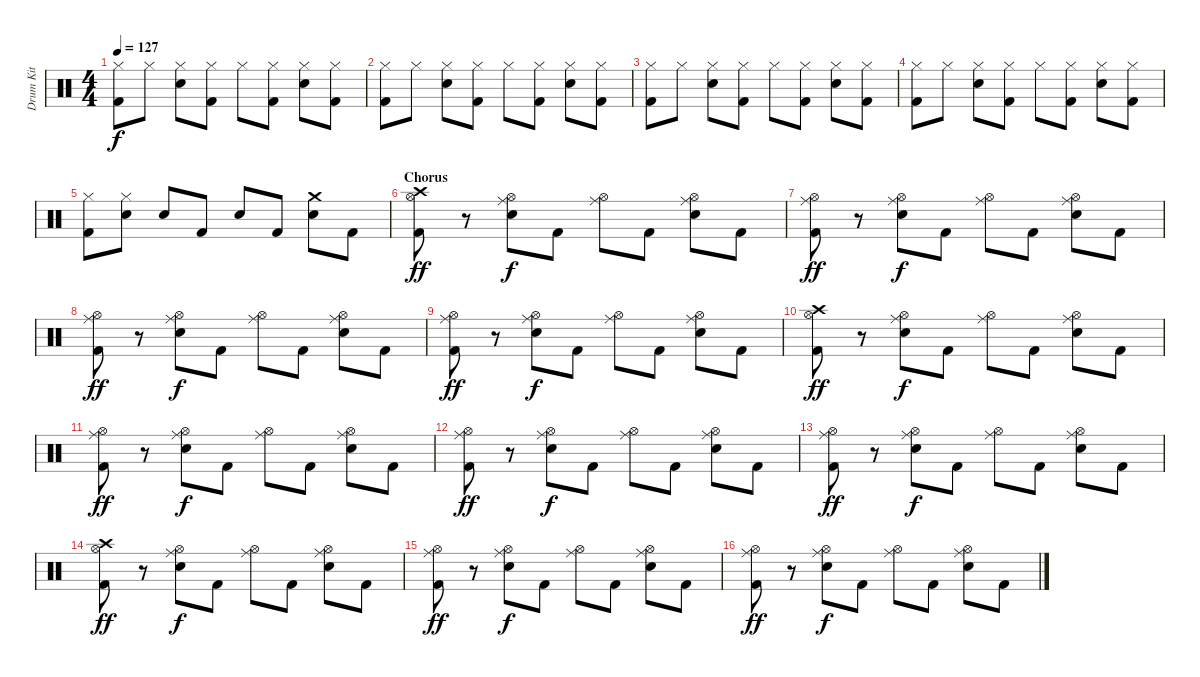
\track ("Drum Kit" "Drum Kit") {instrument percussion}
\staff {score}
\articulation defaults
\ts (4 4)
\tempo 127
\clef neutral
\ks c
("Hi-Hat (closed)" "Kick (hit) 2").8{dy f} "Hi-Hat (closed)".8 ("Hi-Hat (closed)" "Electric Snare (hit)").8 ("Hi-Hat (closed)" "Kick (hit) 2").8 "Hi-Hat (closed)".8 ("Hi-Hat (closed)" "Kick (hit) 2").8 ("Hi-Hat (closed)" "Electric Snare (hit)").8 ("Hi-Hat (closed)" "Kick (hit) 2").8 |
("Hi-Hat (closed)" "Kick (hit) 2").8 "Hi-Hat (closed)".8 ("Hi-Hat (closed)" "Electric Snare (hit)").8 ("Hi-Hat (closed)" "Kick (hit) 2").8 "Hi-Hat (closed)".8 ("Hi-Hat (closed)" "Kick (hit) 2").8 ("Hi-Hat (closed)" "Electric Snare (hit)").8 ("Hi-Hat (closed)" "Kick (hit) 2").8 |
("Hi-Hat (closed)" "Kick (hit) 2").8 "Hi-Hat (closed)".8 ("Hi-Hat (closed)" "Electric Snare (hit)").8 ("Hi-Hat (closed)" "Kick (hit) 2").8 "Hi-Hat (closed)".8 ("Hi-Hat (closed)" "Kick (hit) 2").8 ("Hi-Hat (closed)" "Electric Snare (hit)").8 ("Hi-Hat (closed)" "Kick (hit) 2").8 |
("Hi-Hat (closed)" "Kick (hit) 2").8 "Hi-Hat (closed)".8 ("Hi-Hat (closed)" "Electric Snare (hit)").8 ("Hi-Hat (closed)" "Kick (hit) 2").8 "Hi-Hat (closed)".8 ("Hi-Hat (closed)" "Kick (hit) 2").8 ("Hi-Hat (closed)" "Electric Snare (hit)").8 ("Hi-Hat (closed)" "Kick (hit) 2").8 |
("Hi-Hat (closed)" "Kick (hit) 2").8 ("Hi-Hat (closed)" "Electric Snare (hit)").8 "Electric Snare (hit)".8 "Kick (hit) 2".8 "Electric Snare (hit)".8 "Kick (hit) 2".8 ("Crash medium (hit)" "Electric Snare (hit)").8 "Kick (hit) 2".8 |
\section ("" "Chorus")
("Crash high (hit)" "Hi-Hat (open)" "Kick (hit) 2").8{dy ff} r.8 ("Ride (middle)" "Hi-Hat (open)" "Electric Snare (hit)").8{dy f} "Kick (hit) 2".8 ("Ride (middle)" "Hi-Hat (open)").8 "Kick (hit) 2".8 ("Ride (middle)" "Hi-Hat (open)" "Electric Snare (hit)").8 "Kick (hit) 2".8 |
("Ride (middle)" "Hi-Hat (open)" "Kick (hit) 2").8{dy ff} r.8 ("Ride (middle)" "Hi-Hat (open)" "Electric Snare (hit)").8{dy f} "Kick (hit) 2".8 ("Ride (middle)" "Hi-Hat (open)").8 "Kick (hit) 2".8 ("Ride (middle)" "Hi-Hat (open)" "Electric Snare (hit)").8 "Kick (hit) 2".8 |
("Ride (middle)" "Hi-Hat (open)" "Kick (hit) 2").8{dy ff} r.8 ("Ride (middle)" "Hi-Hat (open)" "Electric Snare (hit)").8{dy f} "Kick (hit) 2".8 ("Ride (middle)" "Hi-Hat (open)").8 "Kick (hit) 2".8 ("Ride (middle)" "Hi-Hat (open)" "Electric Snare (hit)").8 "Kick (hit) 2".8 |
("Ride (middle)" "Hi-Hat (open)" "Kick (hit) 2").8{dy ff} r.8 ("Ride (middle)" "Hi-Hat (open)" "Electric Snare (hit)").8{dy f} "Kick (hit) 2".8 ("Ride (middle)" "Hi-Hat (open)").8 "Kick (hit) 2".8 ("Ride (middle)" "Hi-Hat (open)" "Electric Snare (hit)").8 "Kick (hit) 2".8 |
("Crash high (hit)" "Hi-Hat (open)" "Kick (hit) 2").8{dy ff} r.8 ("Ride (middle)" "Hi-Hat (open)" "Electric Snare (hit)").8{dy f} "Kick (hit) 2".8 ("Ride (middle)" "Hi-Hat (open)").8 "Kick (hit) 2".8 ("Ride (middle)" "Hi-Hat (open)" "Electric Snare (hit)").8 "Kick (hit) 2".8 |
("Ride (middle)" "Hi-Hat (open)" "Kick (hit) 2").8{dy ff} r.8 ("Ride (middle)" "Hi-Hat (open)" "Electric Snare (hit)").8{dy f} "Kick (hit) 2".8 ("Ride (middle)" "Hi-Hat (open)").8 "Kick (hit) 2".8 ("Ride (middle)" "Hi-Hat (open)" "Electric Snare (hit)").8 "Kick (hit) 2".8 |
("Ride (middle)" "Hi-Hat (open)" "Kick (hit) 2").8{dy ff} r.8 ("Ride (middle)" "Hi-Hat (open)" "Electric Snare (hit)").8{dy f} "Kick (hit) 2".8 ("Ride (middle)" "Hi-Hat (open)").8 "Kick (hit) 2".8 ("Ride (middle)" "Hi-Hat (open)" "Electric Snare (hit)").8 "Kick (hit) 2".8 |
("Ride (middle)" "Hi-Hat (open)" "Kick (hit) 2").8{dy ff} r.8 ("Ride (middle)" "Hi-Hat (open)" "Electric Snare (hit)").8{dy f} "Kick (hit) 2".8 ("Ride (middle)" "Hi-Hat (open)").8 "Kick (hit) 2".8 ("Ride (middle)" "Hi-Hat (open)" "Electric Snare (hit)").8 "Kick (hit) 2".8 |
("Crash high (hit)" "Hi-Hat (open)" "Kick (hit) 2").8{dy ff} r.8 ("Ride (middle)" "Hi-Hat (open)" "Electric Snare (hit)").8{dy f} "Kick (hit) 2".8 ("Ride (middle)" "Hi-Hat (open)").8 "Kick (hit) 2".8 ("Ride (middle)" "Hi-Hat (open)" "Electric Snare (hit)").8 "Kick (hit) 2".8 |
("Ride (middle)" "Hi-Hat (open)" "Kick (hit) 2").8{dy ff} r.8 ("Ride (middle)" "Hi-Hat (open)" "Electric Snare (hit)").8{dy f} "Kick (hit) 2".8 ("Ride (middle)" "Hi-Hat (open)").8 "Kick (hit) 2".8 ("Ride (middle)" "Hi-Hat (open)" "Electric Snare (hit)").8 "Kick (hit) 2".8 |
("Ride (middle)" "Hi-Hat (open)" "Kick (hit) 2").8{dy ff} r.8 ("Ride (middle)" "Hi-Hat (open)" "Electric Snare (hit)").8{dy f} "Kick (hit) 2".8 ("Ride (middle)" "Hi-Hat (open)").8 "Kick (hit) 2".8 ("Ride (middle)" "Hi-Hat (open)" "Electric Snare (hit)").8 "Kick (hit) 2".8
